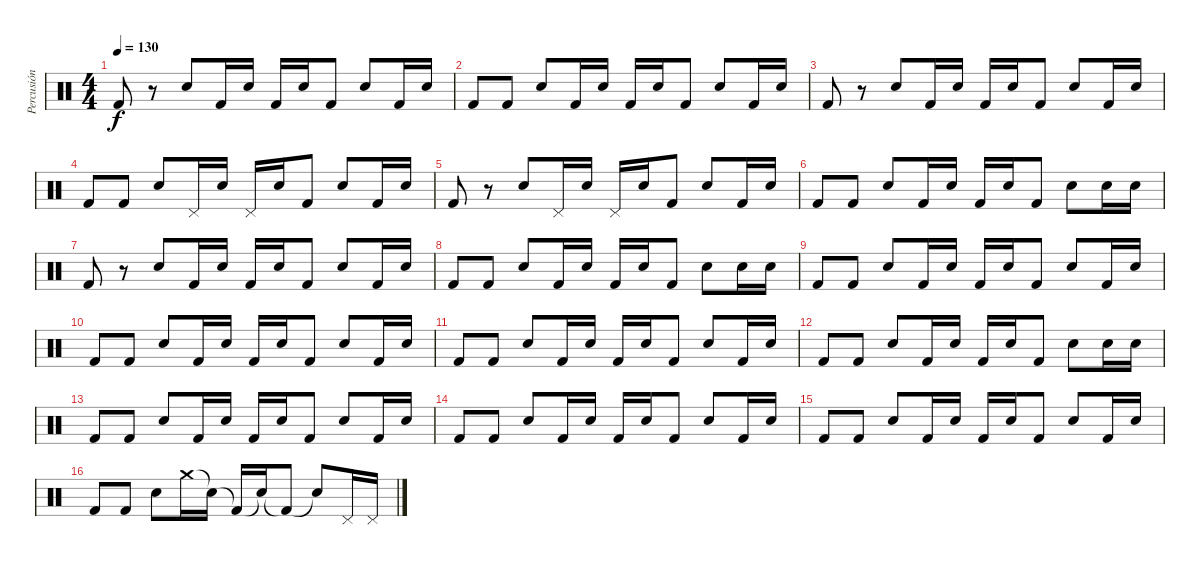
\track ("Percusión" "Percusión") {instrument percussion}
\staff {score}
\articulation defaults
\ts (4 4)
\tempo 130
\clef neutral
\ks c "Kick (hit) 2".8{dy f}
r.8 "Electric Snare (hit)".8 "Kick (hit) 2".16 "Electric Snare (hit)".16 "Kick (hit) 2".16 "Electric Snare (hit)".16 "Kick (hit) 2".8 "Electric Snare (hit)".8 "Kick (hit) 2".16 "Electric Snare (hit)".16 |
"Kick (hit) 2".8 "Kick (hit) 2".8 "Electric Snare (hit)".8 "Kick (hit) 2".16 "Electric Snare (hit)".16 "Kick (hit) 2".16 "Electric Snare (hit)".16 "Kick (hit) 2".8 "Electric Snare (hit)".8 "Kick (hit) 2".16 "Electric Snare (hit)".16 |
"Kick (hit) 2".8 r.8 "Electric Snare (hit)".8 "Kick (hit) 2".16 "Electric Snare (hit)".16 "Kick (hit) 2".16 "Electric Snare (hit)".16 "Kick (hit) 2".8 "Electric Snare (hit)".8 "Kick (hit) 2".16 "Electric Snare (hit)".16 |
"Kick (hit) 2".8 "Kick (hit) 2".8 "Electric Snare (hit)".8 "Pedal Hi-Hat (hit)".16 "Electric Snare (hit)".16 "Pedal Hi-Hat (hit)".16 "Electric Snare (hit)".16 "Kick (hit) 2".8 "Electric Snare (hit)".8 "Kick (hit) 2".16 "Electric Snare (hit)".16 |
"Kick (hit) 2".8 r.8 "Electric Snare (hit)".8 "Pedal Hi-Hat (hit)".16 "Electric Snare (hit)".16 "Pedal Hi-Hat (hit)".16 "Electric Snare (hit)".16 "Kick (hit) 2".8 "Electric Snare (hit)".8 "Kick (hit) 2".16 "Electric Snare (hit)".16 |
"Kick (hit) 2".8 "Kick (hit) 2".8 "Electric Snare (hit)".8 "Kick (hit) 2".16 "Electric Snare (hit)".16 "Kick (hit) 2".16 "Electric Snare (hit)".16 "Kick (hit) 2".8 "Electric Snare (hit)".8 "Electric Snare (hit)".16 "Electric Snare (hit)".16 |
"Kick (hit) 2".8 r.8 "Electric Snare (hit)".8 "Kick (hit) 2".16 "Electric Snare (hit)".16 "Kick (hit) 2".16 "Electric Snare (hit)".16 "Kick (hit) 2".8 "Electric Snare (hit)".8 "Kick (hit) 2".16 "Electric Snare (hit)".16 |
"Kick (hit) 2".8 "Kick (hit) 2".8 "Electric Snare (hit)".8 "Kick (hit) 2".16 "Electric Snare (hit)".16 "Kick (hit) 2".16 "Electric Snare (hit)".16 "Kick (hit) 2".8 "Electric Snare (hit)".8 "Electric Snare (hit)".16 "Electric Snare (hit)".16 |
"Kick (hit) 2".8 "Kick (hit) 2".8 "Electric Snare (hit)".8 "Kick (hit) 2".16 "Electric Snare (hit)".16 "Kick (hit) 2".16 "Electric Snare (hit)".16 "Kick (hit) 2".8 "Electric Snare (hit)".8 "Kick (hit) 2".16 "Electric Snare (hit)".16 |
"Kick (hit) 2".8 "Kick (hit) 2".8 "Electric Snare (hit)".8 "Kick (hit) 2".16 "Electric Snare (hit)".16 "Kick (hit) 2".16 "Electric Snare (hit)".16 "Kick (hit) 2".8 "Electric Snare (hit)".8 "Kick (hit) 2".16 "Electric Snare (hit)".16 |
"Kick (hit) 2".8 "Kick (hit) 2".8 "Electric Snare (hit)".8 "Kick (hit) 2".16 "Electric Snare (hit)".16 "Kick (hit) 2".16 "Electric Snare (hit)".16 "Kick (hit) 2".8 "Electric Snare (hit)".8 "Kick (hit) 2".16 "Electric Snare (hit)".16 |
"Kick (hit) 2".8 "Kick (hit) 2".8 "Electric Snare (hit)".8 "Kick (hit) 2".16 "Electric Snare (hit)".16 "Kick (hit) 2".16 "Electric Snare (hit)".16 "Kick (hit) 2".8 "Electric Snare (hit)".8 "Electric Snare (hit)".16 "Electric Snare (hit)".16 |
"Kick (hit) 2".8 "Kick (hit) 2".8 "Electric Snare (hit)".8 "Kick (hit) 2".16 "Electric Snare (hit)".16 "Kick (hit) 2".16 "Electric Snare (hit)".16 "Kick (hit) 2".8 "Electric Snare (hit)".8 "Kick (hit) 2".16 "Electric Snare (hit)".16 |
"Kick (hit) 2".8 "Kick (hit) 2".8 "Electric Snare (hit)".8 "Kick (hit) 2".16 "Electric Snare (hit)".16 "Kick (hit) 2".16 "Electric Snare (hit)".16 "Kick (hit) 2".8 "Electric Snare (hit)".8 "Kick (hit) 2".16 "Electric Snare (hit)".16 |
"Kick (hit) 2".8 "Kick (hit) 2".8 "Electric Snare (hit)".8 "Kick (hit) 2".16 "Electric Snare (hit)".16 "Kick (hit) 2".16 "Electric Snare (hit)".16 "Kick (hit) 2".8 "Electric Snare (hit)".8 "Kick (hit) 2".16 "Electric Snare (hit)".16 |
"Kick (hit) 2".8 "Kick (hit) 2".8 "Electric Snare (hit)".8 "Crash medium (hit)".16 "Electric Snare (hit)"{t}.16 "Kick (hit) 2"{t}.16 "Electric Snare (hit)"{t}.16 "Kick (hit) 2"{t}.8 "Electric Snare (hit)"{t}.8 "Pedal Hi-Hat (hit)".16 "Pedal Hi-Hat (hit)".16
